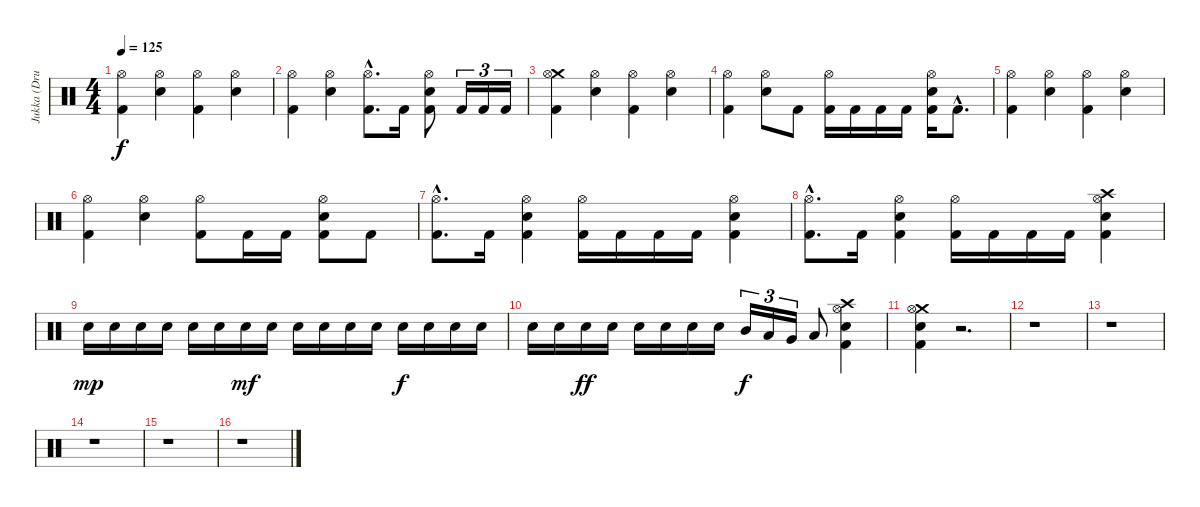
\track ("Jukka (Drums)" "Jukka (Dru") {instrument percussion}
\staff {score}
\articulation defaults
\ts (4 4)
\tempo 125
\clef neutral
\ks c
("Hi-Hat (open)" "Kick (hit) 2").4{dy f} ("Hi-Hat (open)" "Electric Snare (hit)").4 ("Hi-Hat (open)" "Kick (hit) 2").4 ("Hi-Hat (open)" "Electric Snare (hit)").4 |
("Hi-Hat (open)" "Kick (hit) 2").4 ("Hi-Hat (open)" "Electric Snare (hit)").4 ("Hi-Hat (open)"{hac} "Kick (hit) 2"{hac}).8{d} "Kick (hit) 2".16 ("Hi-Hat (open)" "Electric Snare (hit)" "Kick (hit) 2").8 "Kick (hit) 2".16{tu (3 2)} "Kick (hit) 2".16{tu (3 2)} "Kick (hit) 2".16{tu (3 2)} |
("Crash medium (hit)" "Hi-Hat (open)" "Kick (hit) 2").4 ("Hi-Hat (open)" "Electric Snare (hit)").4 ("Hi-Hat (open)" "Kick (hit) 2").4 ("Hi-Hat (open)" "Electric Snare (hit)").4 |
("Hi-Hat (open)" "Kick (hit) 2").4 ("Hi-Hat (open)" "Electric Snare (hit)").8 "Kick (hit) 2".8 ("Hi-Hat (open)" "Kick (hit) 2").16 "Kick (hit) 2".16 "Kick (hit) 2".16 "Kick (hit) 2".16 ("Hi-Hat (open)" "Electric Snare (hit)" "Kick (hit) 2").16 "Kick (hit) 2"{hac}.8{d} |
("Hi-Hat (open)" "Kick (hit) 2").4 ("Hi-Hat (open)" "Electric Snare (hit)").4 ("Hi-Hat (open)" "Kick (hit) 2").4 ("Hi-Hat (open)" "Electric Snare (hit)").4 |
("Hi-Hat (open)" "Kick (hit) 2").4 ("Hi-Hat (open)" "Electric Snare (hit)").4 ("Hi-Hat (open)" "Kick (hit) 2").8 "Kick (hit) 2".16 "Kick (hit) 2".16 ("Hi-Hat (open)" "Electric Snare (hit)" "Kick (hit) 2").8 "Kick (hit) 2".8 |
("Hi-Hat (open)"{hac} "Kick (hit) 2"{hac}).8{d} "Kick (hit) 2".16 ("Hi-Hat (open)" "Electric Snare (hit)" "Kick (hit) 2").4 ("Hi-Hat (open)" "Kick (hit) 2").16 "Kick (hit) 2".16 "Kick (hit) 2".16 "Kick (hit) 2".16 ("Hi-Hat (open)" "Electric Snare (hit)" "Kick (hit) 2").4 |
("Hi-Hat (open)"{hac} "Kick (hit) 2"{hac}).8{d} "Kick (hit) 2".16 ("Hi-Hat (open)" "Electric Snare (hit)" "Kick (hit) 2").4 ("Hi-Hat (open)" "Kick (hit) 2").16 "Kick (hit) 2".16 "Kick (hit) 2".16 "Kick (hit) 2".16 ("Crash high (hit)" "Hi-Hat (open)" "Electric Snare (hit)" "Kick (hit) 2").4 |
"Electric Snare (hit)".16{dy mp} "Electric Snare (hit)".16 "Electric Snare (hit)".16 "Electric Snare (hit)".16 "Electric Snare (hit)".16 "Electric Snare (hit)".16 "Electric Snare (hit)".16{dy mf} "Electric Snare (hit)".16 "Electric Snare (hit)".16 "Electric Snare (hit)".16 "Electric Snare (hit)".16 "Electric Snare (hit)".16 "Electric Snare (hit)".16{dy f} "Electric Snare (hit)".16 "Electric Snare (hit)".16 "Electric Snare (hit)".16 |
"Electric Snare (hit)".16 "Electric Snare (hit)".16 "Electric Snare (hit)".16{dy ff} "Electric Snare (hit)".16 "Electric Snare (hit)".16 "Electric Snare (hit)".16 "Electric Snare (hit)".16 "Electric Snare (hit)".16 "Mid Tom (hit)".16{tu (3 2) dy f} "Low Tom (hit)".16{tu (3 2)} "Very Low Tom (hit)".16{tu (3 2)} "Low Floor Tom (hit)".8 ("Crash high (hit)" "Hi-Hat (open)" "Electric Snare (hit)" "Kick (hit) 2").4 |
("Crash medium (hit)" "Hi-Hat (open)" "Electric Snare (hit)" "Kick (hit) 2").4 r.2{d} |
r.1 |
r.1 |
r.1 |
r.1 |
r.1
